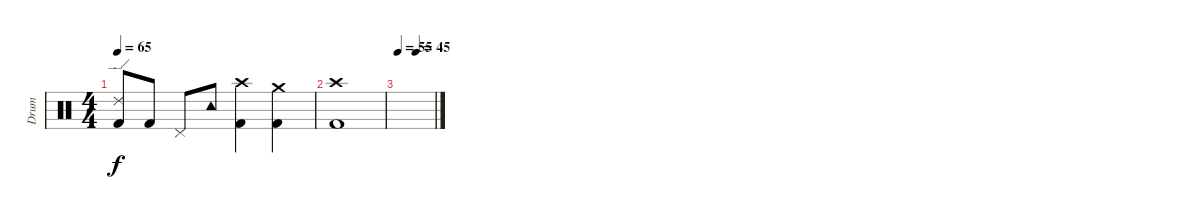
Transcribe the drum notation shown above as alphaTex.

\track ("Drum" "Drum") {instrument percussion}
\staff {score}
\articulation defaults
\ts (4 4)
\tempo 65
\clef neutral
\ks c
("Ride (edge) 2" "Kick (hit) 2").8{dy f} "Kick (hit) 2".8 "Pedal Hi-Hat (hit)".8 "Tambourine (hit)".8 ("Crash high (hit)" "Kick (hit) 2").4 ("Crash medium (hit)" "Kick (hit) 2").4 |
("Crash high (hit)" "Kick (hit) 2").1 |
\tempo 55
\tempo (45 0.5)
